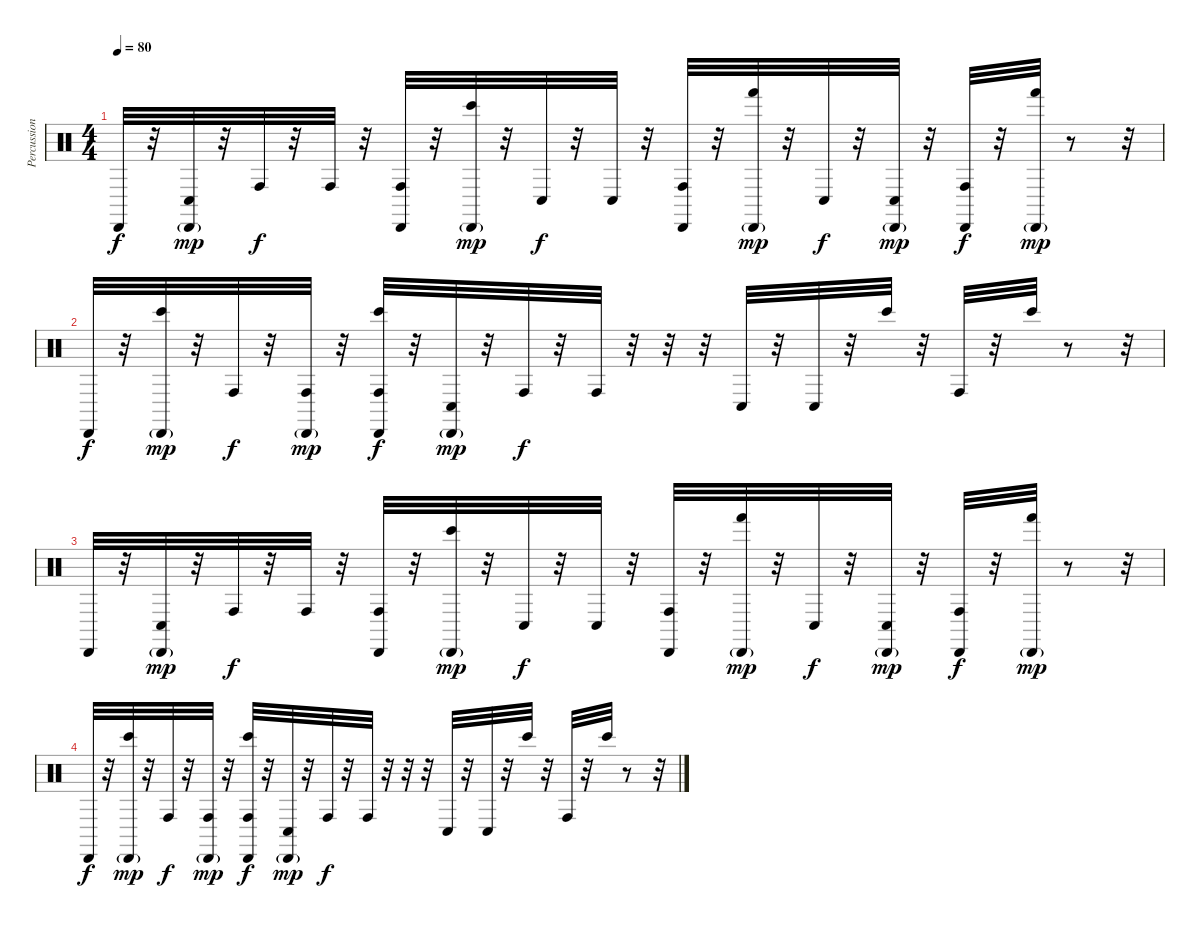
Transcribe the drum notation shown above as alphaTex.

\track ("Percussion" "Percussion") {instrument percussion}
\staff {score}
\articulation defaults
\ts (4 4)
\tempo 80
\clef neutral
\ks c "Cabasa (hit)".32{dy f}
r.32 ("Cabasa (hit)"{g} "Conga low (hit)").32{dy mp} r.32 "Conga high (hit)".32{dy f} r.32 "Conga high (hit)".32 r.32 ("Cabasa (hit)" "Conga high (hit)").32 r.32 ("Cabasa (hit)"{g} "Bongo High (hit)").32{dy mp} r.32 "Conga low (hit)".32{dy f} r.32 "Conga low (hit)".32 r.32 ("Cabasa (hit)" "Conga high (hit)").32 r.32 ("Cabasa (hit)"{g} "Hand (hit)").32{dy mp} r.32 "Conga low (hit)".32{dy f} r.32 ("Cabasa (hit)"{g} "Conga low (hit)").32{dy mp} r.32 ("Cabasa (hit)" "Conga high (hit)").32{dy f} r.32 ("Cabasa (hit)"{g} "Hand (hit)").32{dy mp} r.8 r.32 |
"Cabasa (hit)".32{dy f} r.32 ("Cabasa (hit)"{g} "Bongo High (hit)").32{dy mp} r.32 "Conga high (hit)".32{dy f} r.32 ("Cabasa (hit)"{g} "Conga high (hit)").32{dy mp} r.32 ("Cabasa (hit)" "Conga high (hit)" "Bongo High (hit)").32{dy f} r.32 ("Cabasa (hit)"{g} "Conga low (hit)").32{dy mp} r.32 "Conga high (hit)".32{dy f} r.32 "Conga high (hit)".32 r.32 r.32 r.32 "Conga low (hit)".32 r.32 "Conga low (hit)".32 r.32 "Bongo High (hit)".32 r.32 "Conga high (hit)".32 r.32 "Bongo High (hit)".32 r.8 r.32 |
"Cabasa (hit)".32 r.32 ("Cabasa (hit)"{g} "Conga low (hit)").32{dy mp} r.32 "Conga high (hit)".32{dy f} r.32 "Conga high (hit)".32 r.32 ("Cabasa (hit)" "Conga high (hit)").32 r.32 ("Cabasa (hit)"{g} "Bongo High (hit)").32{dy mp} r.32 "Conga low (hit)".32{dy f} r.32 "Conga low (hit)".32 r.32 ("Cabasa (hit)" "Conga high (hit)").32 r.32 ("Cabasa (hit)"{g} "Hand (hit)").32{dy mp} r.32 "Conga low (hit)".32{dy f} r.32 ("Cabasa (hit)"{g} "Conga low (hit)").32{dy mp} r.32 ("Cabasa (hit)" "Conga high (hit)").32{dy f} r.32 ("Cabasa (hit)"{g} "Hand (hit)").32{dy mp} r.8 r.32 |
"Cabasa (hit)".32{dy f} r.32 ("Cabasa (hit)"{g} "Bongo High (hit)").32{dy mp} r.32 "Conga high (hit)".32{dy f} r.32 ("Cabasa (hit)"{g} "Conga high (hit)").32{dy mp} r.32 ("Cabasa (hit)" "Conga high (hit)" "Bongo High (hit)").32{dy f} r.32 ("Cabasa (hit)"{g} "Conga low (hit)").32{dy mp} r.32 "Conga high (hit)".32{dy f} r.32 "Conga high (hit)".32 r.32 r.32 r.32 "Conga low (hit)".32 r.32 "Conga low (hit)".32 r.32 "Bongo High (hit)".32 r.32 "Conga high (hit)".32 r.32 "Bongo High (hit)".32 r.8 r.32
